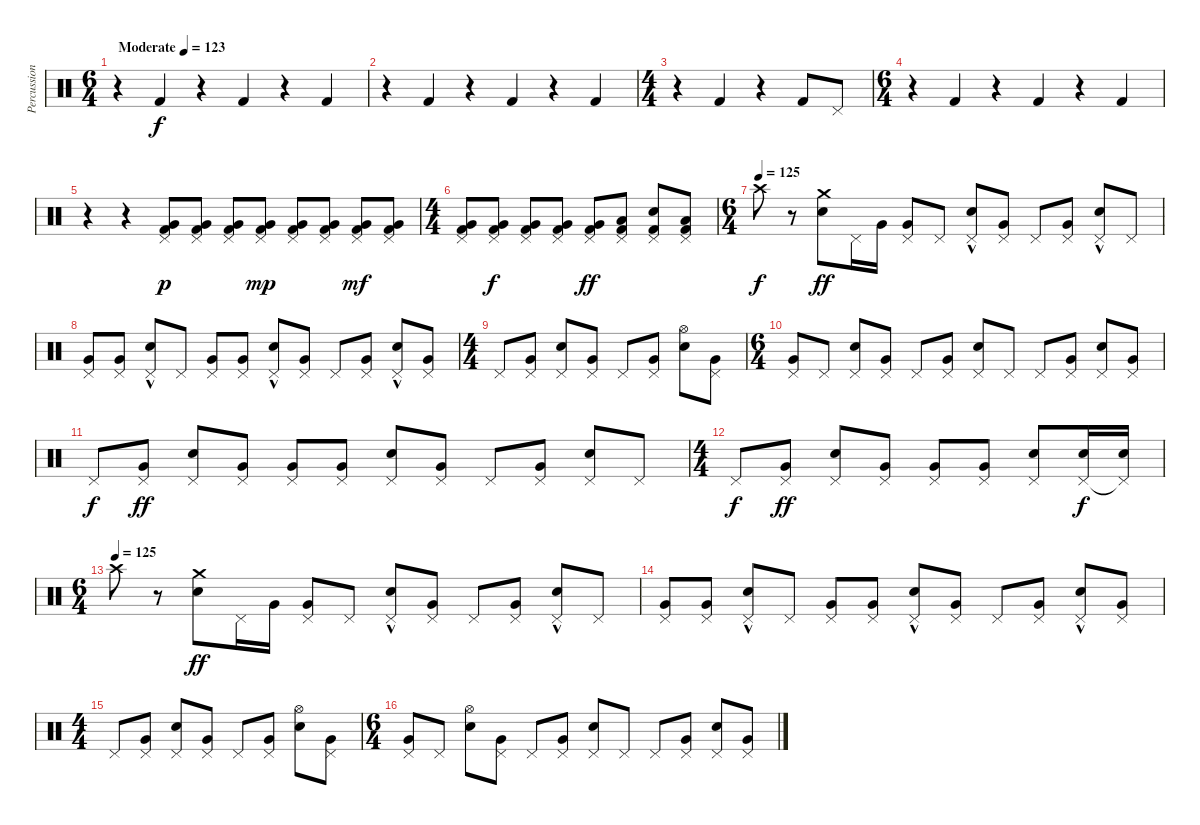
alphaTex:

\track ("Percussion" "Percussion") {instrument percussion}
\staff {score}
\articulation defaults
\ts (6 4)
\tempo (123 "Moderate")
\clef neutral
\ks c
r.4{dy f} "Kick (hit) 2".4 r.4 "Kick (hit) 2".4 r.4 "Kick (hit) 2".4 |
r.4 "Kick (hit) 2".4 r.4 "Kick (hit) 2".4 r.4 "Kick (hit) 2".4 |
\ts (4 4)
r.4 "Kick (hit) 2".4 r.4 "Kick (hit) 2".8 "Pedal Hi-Hat (hit)".8 |
\ts (6 4)
r.4 "Kick (hit) 2".4 r.4 "Kick (hit) 2".4 r.4 "Kick (hit) 2".4 |
r.4 r.4 ("Pedal Hi-Hat (hit)" "Kick (hit) 2" "Very Low Tom (hit)").8{dy p} ("Pedal Hi-Hat (hit)" "Kick (hit) 2" "Very Low Tom (hit)").8 ("Pedal Hi-Hat (hit)" "Kick (hit) 2" "Very Low Tom (hit)").8 ("Pedal Hi-Hat (hit)" "Kick (hit) 2" "Very Low Tom (hit)").8{dy mp} ("Pedal Hi-Hat (hit)" "Kick (hit) 2" "Very Low Tom (hit)").8 ("Pedal Hi-Hat (hit)" "Kick (hit) 2" "Very Low Tom (hit)").8 ("Pedal Hi-Hat (hit)" "Kick (hit) 2" "Very Low Tom (hit)").8{dy mf} ("Pedal Hi-Hat (hit)" "Kick (hit) 2" "Very Low Tom (hit)").8 |
\ts (4 4)
("Pedal Hi-Hat (hit)" "Kick (hit) 2" "Very Low Tom (hit)").8 ("Pedal Hi-Hat (hit)" "Kick (hit) 2" "Very Low Tom (hit)").8{dy f} ("Pedal Hi-Hat (hit)" "Kick (hit) 2" "Very Low Tom (hit)").8 ("Pedal Hi-Hat (hit)" "Kick (hit) 2" "Very Low Tom (hit)").8 ("Pedal Hi-Hat (hit)" "Kick (hit) 2" "Very Low Tom (hit)").8{dy ff} ("Pedal Hi-Hat (hit)" "Kick (hit) 2" "Low Floor Tom (hit)").8 ("Pedal Hi-Hat (hit)" "Kick (hit) 2" "Electric Snare (hit)").8 ("Pedal Hi-Hat (hit)" "Kick (hit) 2" "Low Floor Tom (hit)").8 |
\ts (6 4)
\tempo (125)
"Crash high (hit)".8{dy f} r.8 ("Crash medium (hit)" "Electric Snare (hit)").8{dy ff} "Pedal Hi-Hat (hit)".16 "Very Low Tom (hit)".16 ("Pedal Hi-Hat (hit)" "Very Low Tom (hit)").8 "Pedal Hi-Hat (hit)".8 ("Pedal Hi-Hat (hit)"{hac} "Electric Snare (hit)").8 ("Pedal Hi-Hat (hit)" "Very Low Tom (hit)").8 "Pedal Hi-Hat (hit)".8 ("Pedal Hi-Hat (hit)" "Very Low Tom (hit)").8 ("Pedal Hi-Hat (hit)"{hac} "Electric Snare (hit)").8 "Pedal Hi-Hat (hit)".8 |
("Pedal Hi-Hat (hit)" "Very Low Tom (hit)").8 ("Pedal Hi-Hat (hit)" "Very Low Tom (hit)").8 ("Pedal Hi-Hat (hit)"{hac} "Electric Snare (hit)").8 "Pedal Hi-Hat (hit)".8 ("Pedal Hi-Hat (hit)" "Very Low Tom (hit)").8 ("Pedal Hi-Hat (hit)" "Very Low Tom (hit)").8 ("Pedal Hi-Hat (hit)"{hac} "Electric Snare (hit)").8 ("Pedal Hi-Hat (hit)" "Very Low Tom (hit)").8 "Pedal Hi-Hat (hit)".8 ("Pedal Hi-Hat (hit)" "Very Low Tom (hit)").8 ("Pedal Hi-Hat (hit)"{hac} "Electric Snare (hit)").8 ("Pedal Hi-Hat (hit)" "Very Low Tom (hit)").8 |
\ts (4 4)
"Pedal Hi-Hat (hit)".8 ("Pedal Hi-Hat (hit)" "Very Low Tom (hit)").8 ("Pedal Hi-Hat (hit)" "Electric Snare (hit)").8 ("Pedal Hi-Hat (hit)" "Very Low Tom (hit)").8 "Pedal Hi-Hat (hit)".8 ("Pedal Hi-Hat (hit)" "Very Low Tom (hit)").8 ("Hi-Hat (open)" "Electric Snare (hit)").8 ("Pedal Hi-Hat (hit)" "Very Low Tom (hit)").8 |
\ts (6 4)
("Pedal Hi-Hat (hit)" "Very Low Tom (hit)").8 "Pedal Hi-Hat (hit)".8 ("Pedal Hi-Hat (hit)" "Electric Snare (hit)").8 ("Pedal Hi-Hat (hit)" "Very Low Tom (hit)").8 "Pedal Hi-Hat (hit)".8 ("Pedal Hi-Hat (hit)" "Very Low Tom (hit)").8 ("Pedal Hi-Hat (hit)" "Electric Snare (hit)").8 "Pedal Hi-Hat (hit)".8 "Pedal Hi-Hat (hit)".8 ("Pedal Hi-Hat (hit)" "Very Low Tom (hit)").8 ("Pedal Hi-Hat (hit)" "Electric Snare (hit)").8 ("Pedal Hi-Hat (hit)" "Very Low Tom (hit)").8 |
"Pedal Hi-Hat (hit)".8{dy f} ("Pedal Hi-Hat (hit)" "Very Low Tom (hit)").8{dy ff} ("Pedal Hi-Hat (hit)" "Electric Snare (hit)").8 ("Pedal Hi-Hat (hit)" "Very Low Tom (hit)").8 ("Pedal Hi-Hat (hit)" "Very Low Tom (hit)").8 ("Pedal Hi-Hat (hit)" "Very Low Tom (hit)").8 ("Pedal Hi-Hat (hit)" "Electric Snare (hit)").8 ("Pedal Hi-Hat (hit)" "Very Low Tom (hit)").8 "Pedal Hi-Hat (hit)".8 ("Pedal Hi-Hat (hit)" "Very Low Tom (hit)").8 ("Pedal Hi-Hat (hit)" "Electric Snare (hit)").8 "Pedal Hi-Hat (hit)".8 |
\ts (4 4)
"Pedal Hi-Hat (hit)".8{dy f} ("Pedal Hi-Hat (hit)" "Very Low Tom (hit)").8{dy ff} ("Pedal Hi-Hat (hit)" "Electric Snare (hit)").8 ("Pedal Hi-Hat (hit)" "Very Low Tom (hit)").8 ("Pedal Hi-Hat (hit)" "Very Low Tom (hit)").8 ("Pedal Hi-Hat (hit)" "Very Low Tom (hit)").8 ("Pedal Hi-Hat (hit)" "Electric Snare (hit)").8 ("Pedal Hi-Hat (hit)" "Electric Snare (hit)").16{dy f} ("Pedal Hi-Hat (hit)"{t} "Electric Snare (hit)").16 |
\ts (6 4)
\tempo (125)
"Crash high (hit)".8 r.8 ("Crash medium (hit)" "Electric Snare (hit)").8{dy ff} "Pedal Hi-Hat (hit)".16 "Very Low Tom (hit)".16 ("Pedal Hi-Hat (hit)" "Very Low Tom (hit)").8 "Pedal Hi-Hat (hit)".8 ("Pedal Hi-Hat (hit)"{hac} "Electric Snare (hit)").8 ("Pedal Hi-Hat (hit)" "Very Low Tom (hit)").8 "Pedal Hi-Hat (hit)".8 ("Pedal Hi-Hat (hit)" "Very Low Tom (hit)").8 ("Pedal Hi-Hat (hit)"{hac} "Electric Snare (hit)").8 "Pedal Hi-Hat (hit)".8 |
("Pedal Hi-Hat (hit)" "Very Low Tom (hit)").8 ("Pedal Hi-Hat (hit)" "Very Low Tom (hit)").8 ("Pedal Hi-Hat (hit)"{hac} "Electric Snare (hit)").8 "Pedal Hi-Hat (hit)".8 ("Pedal Hi-Hat (hit)" "Very Low Tom (hit)").8 ("Pedal Hi-Hat (hit)" "Very Low Tom (hit)").8 ("Pedal Hi-Hat (hit)"{hac} "Electric Snare (hit)").8 ("Pedal Hi-Hat (hit)" "Very Low Tom (hit)").8 "Pedal Hi-Hat (hit)".8 ("Pedal Hi-Hat (hit)" "Very Low Tom (hit)").8 ("Pedal Hi-Hat (hit)"{hac} "Electric Snare (hit)").8 ("Pedal Hi-Hat (hit)" "Very Low Tom (hit)").8 |
\ts (4 4)
"Pedal Hi-Hat (hit)".8 ("Pedal Hi-Hat (hit)" "Very Low Tom (hit)").8 ("Pedal Hi-Hat (hit)" "Electric Snare (hit)").8 ("Pedal Hi-Hat (hit)" "Very Low Tom (hit)").8 "Pedal Hi-Hat (hit)".8 ("Pedal Hi-Hat (hit)" "Very Low Tom (hit)").8 ("Hi-Hat (open)" "Electric Snare (hit)").8 ("Pedal Hi-Hat (hit)" "Very Low Tom (hit)").8 |
\ts (6 4)
("Pedal Hi-Hat (hit)" "Very Low Tom (hit)").8 "Pedal Hi-Hat (hit)".8 ("Hi-Hat (open)" "Electric Snare (hit)").8 ("Pedal Hi-Hat (hit)" "Very Low Tom (hit)").8 "Pedal Hi-Hat (hit)".8 ("Pedal Hi-Hat (hit)" "Very Low Tom (hit)").8 ("Pedal Hi-Hat (hit)" "Electric Snare (hit)").8 "Pedal Hi-Hat (hit)".8 "Pedal Hi-Hat (hit)".8 ("Pedal Hi-Hat (hit)" "Very Low Tom (hit)").8 ("Pedal Hi-Hat (hit)" "Electric Snare (hit)").8 ("Pedal Hi-Hat (hit)" "Very Low Tom (hit)").8
